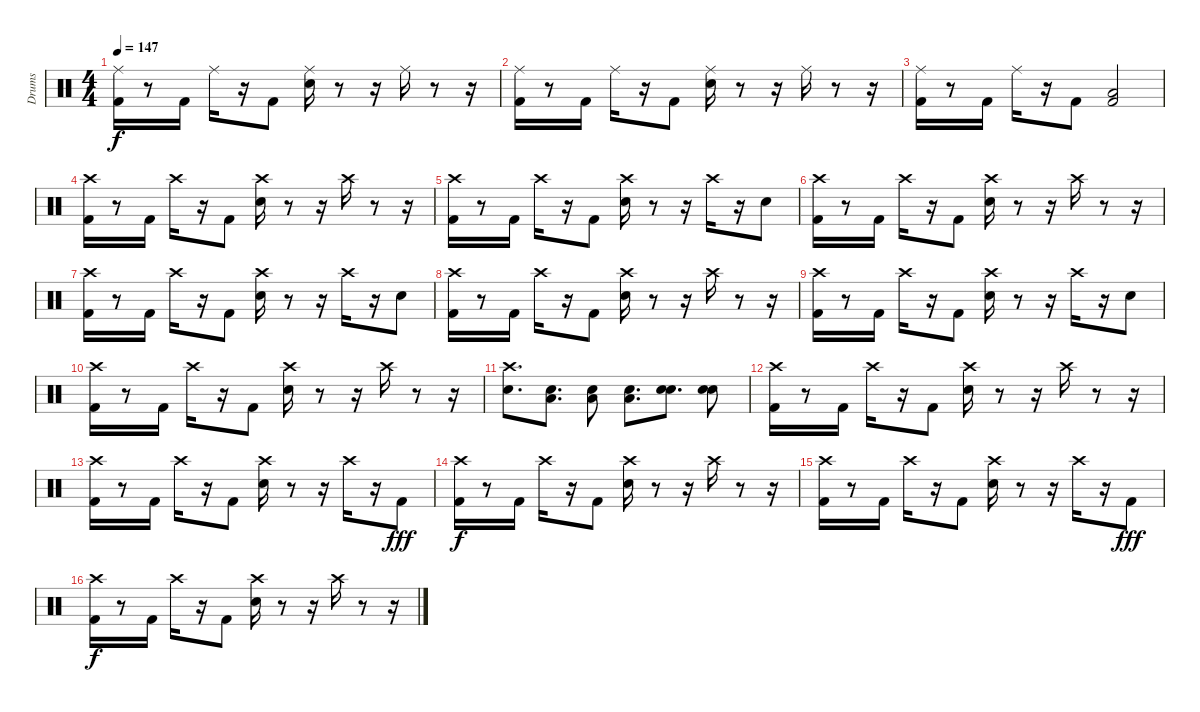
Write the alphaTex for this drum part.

\track ("Drums" "Drums") {instrument percussion}
\staff {score}
\articulation defaults
\ts (4 4)
\tempo 147
\clef neutral
\ks c
("Ride (middle)" "Kick (hit) 2").16{dy f} r.8 "Kick (hit) 2".16 "Ride (middle)".16 r.16 "Kick (hit) 2".8 ("Ride (middle)" "Snare (hit) 2").16 r.8 r.16 "Ride (middle)".16 r.8 r.16 |
("Ride (middle)" "Kick (hit) 2").16 r.8 "Kick (hit) 2".16 "Ride (middle)".16 r.16 "Kick (hit) 2".8 ("Ride (middle)" "Snare (hit) 2").16 r.8 r.16 "Ride (middle)".16 r.8 r.16 |
("Ride (middle)" "Kick (hit) 2").16 r.8 "Kick (hit) 2".16 "Ride (middle)".16 r.16 "Kick (hit) 2".8 ("Low Floor Tom (hit)" "Kick (hit) 2").2 |
("Crash high (hit)" "Kick (hit) 2").16 r.8 "Kick (hit) 2".16 "Crash high (hit)".16 r.16 "Kick (hit) 2".8 ("Crash high (hit)" "Snare (hit) 2").16 r.8 r.16 "Crash high (hit)".16 r.8 r.16 |
("Crash high (hit)" "Kick (hit) 2").16 r.8 "Kick (hit) 2".16 "Crash high (hit)".16 r.16 "Kick (hit) 2".8 ("Crash high (hit)" "Snare (hit) 2").16 r.8 r.16 "Crash high (hit)".16 r.16 "Snare (hit) 2".8 |
("Crash high (hit)" "Kick (hit) 2").16 r.8 "Kick (hit) 2".16 "Crash high (hit)".16 r.16 "Kick (hit) 2".8 ("Crash high (hit)" "Snare (hit) 2").16 r.8 r.16 "Crash high (hit)".16 r.8 r.16 |
("Crash high (hit)" "Kick (hit) 2").16 r.8 "Kick (hit) 2".16 "Crash high (hit)".16 r.16 "Kick (hit) 2".8 ("Crash high (hit)" "Snare (hit) 2").16 r.8 r.16 "Crash high (hit)".16 r.16 "Snare (hit) 2".8 |
("Crash high (hit)" "Kick (hit) 2").16 r.8 "Kick (hit) 2".16 "Crash high (hit)".16 r.16 "Kick (hit) 2".8 ("Crash high (hit)" "Snare (hit) 2").16 r.8 r.16 "Crash high (hit)".16 r.8 r.16 |
("Crash high (hit)" "Kick (hit) 2").16 r.8 "Kick (hit) 2".16 "Crash high (hit)".16 r.16 "Kick (hit) 2".8 ("Crash high (hit)" "Snare (hit) 2").16 r.8 r.16 "Crash high (hit)".16 r.16 "Snare (hit) 2".8 |
("Crash high (hit)" "Kick (hit) 2").16 r.8 "Kick (hit) 2".16 "Crash high (hit)".16 r.16 "Kick (hit) 2".8 ("Crash high (hit)" "Snare (hit) 2").16 r.8 r.16 "Crash high (hit)".16 r.8 r.16 |
("Crash high (hit)" "Snare (hit) 2").8{d} ("Snare (hit) 2" "Low Floor Tom (hit)").8{d} ("Snare (hit) 2" "Low Floor Tom (hit)").8 ("Snare (hit) 2" "Low Floor Tom (hit)").8{d} ("Snare (hit) 2" "Snare (hit) 2").8{d} ("Snare (hit) 2" "Snare (hit) 2").8 |
("Crash high (hit)" "Kick (hit) 2").16 r.8 "Kick (hit) 2".16 "Crash high (hit)".16 r.16 "Kick (hit) 2".8 ("Crash high (hit)" "Snare (hit) 2").16 r.8 r.16 "Crash high (hit)".16 r.8 r.16 |
("Crash high (hit)" "Kick (hit) 2").16 r.8 "Kick (hit) 2".16 "Crash high (hit)".16 r.16 "Kick (hit) 2".8 ("Crash high (hit)" "Snare (hit) 2").16 r.8 r.16 "Crash high (hit)".16 r.16 "Kick (hit) 2".8{dy fff} |
("Crash high (hit)" "Kick (hit) 2").16{dy f} r.8 "Kick (hit) 2".16 "Crash high (hit)".16 r.16 "Kick (hit) 2".8 ("Crash high (hit)" "Snare (hit) 2").16 r.8 r.16 "Crash high (hit)".16 r.8 r.16 |
("Crash high (hit)" "Kick (hit) 2").16 r.8 "Kick (hit) 2".16 "Crash high (hit)".16 r.16 "Kick (hit) 2".8 ("Crash high (hit)" "Snare (hit) 2").16 r.8 r.16 "Crash high (hit)".16 r.16 "Kick (hit) 2".8{dy fff} |
("Crash high (hit)" "Kick (hit) 2").16{dy f} r.8 "Kick (hit) 2".16 "Crash high (hit)".16 r.16 "Kick (hit) 2".8 ("Crash high (hit)" "Snare (hit) 2").16 r.8 r.16 "Crash high (hit)".16 r.8 r.16
